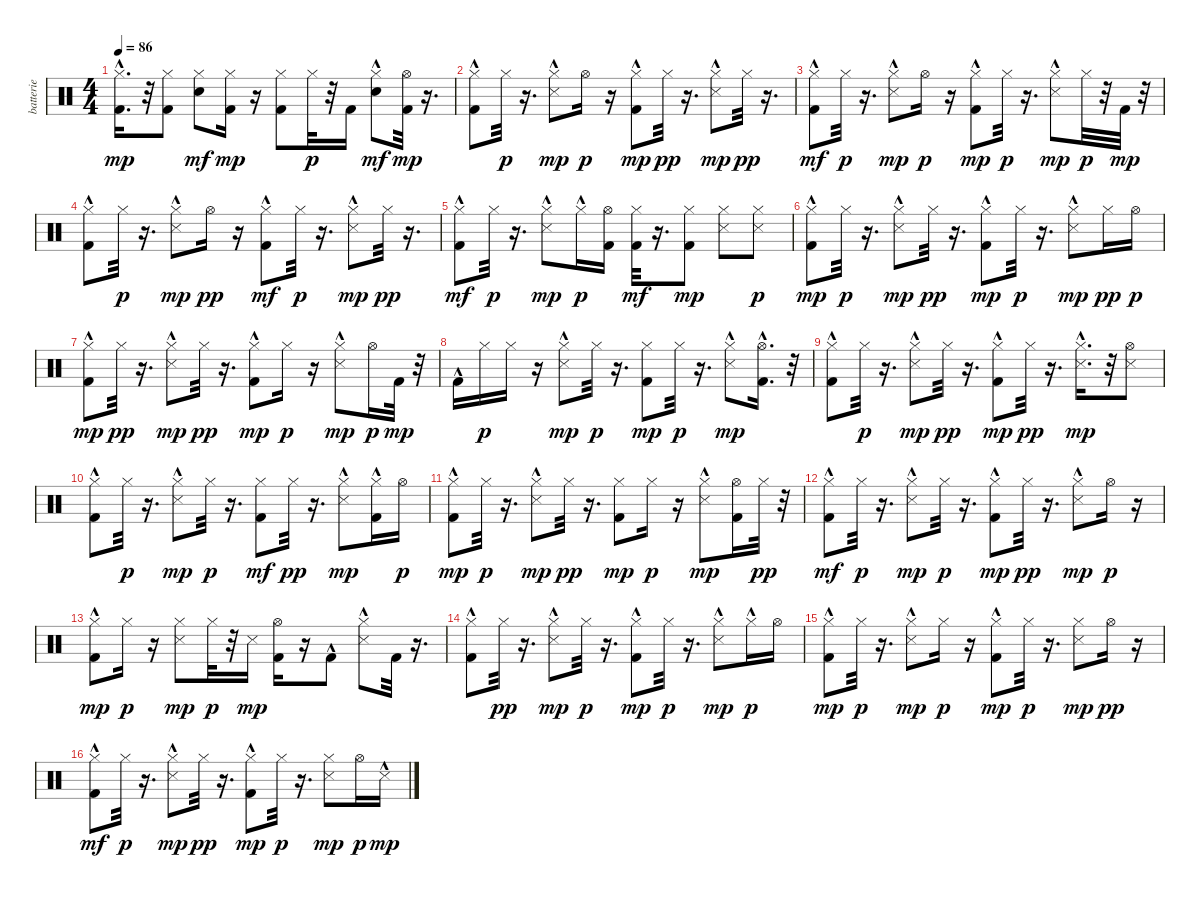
\track ("batterie" "batterie") {instrument percussion}
\staff {score}
\articulation defaults
\ts (4 4)
\tempo 86
\clef neutral
\ks c
("Hi-Hat (closed)" "Kick (hit) 2"{hac}).16{d dy mp} r.32 ("Hi-Hat (closed)" "Kick (hit) 2").8 ("Hi-Hat (closed)" "Snare (hit) 2").8{dy mf} ("Hi-Hat (closed)" "Kick (hit) 2").16{dy mp} r.16 ("Hi-Hat (closed)" "Kick (hit) 2").8 "Hi-Hat (closed)".32{dy p} r.32 "Kick (hit) 2".16 ("Hi-Hat (closed)" "Snare (hit) 2"{hac}).8{dy mf} ("Hi-Hat (open)" "Kick (hit) 2").32{dy mp} r.16{d} |
("Hi-Hat (closed)" "Kick (hit) 2"{hac}).8 "Hi-Hat (closed)".32{dy p} r.16{d} ("Hi-Hat (closed)" "Snare (side stick) 3"{hac}).8{dy mp} "Hi-Hat (open)".16{dy p} r.16 ("Hi-Hat (closed)" "Kick (hit) 2"{hac}).8{dy mp} "Hi-Hat (closed)".32{dy pp} r.16{d} ("Hi-Hat (closed)" "Snare (side stick) 3"{hac}).8{dy mp} "Hi-Hat (closed)".32{dy pp} r.16{d} |
("Hi-Hat (closed)" "Kick (hit) 2"{hac}).8{dy mf} "Hi-Hat (closed)".32{dy p} r.16{d} ("Hi-Hat (closed)" "Snare (side stick) 3"{hac}).8{dy mp} "Hi-Hat (open)".16{dy p} r.16 ("Hi-Hat (closed)" "Kick (hit) 2"{hac}).8{dy mp} "Hi-Hat (closed)".32{dy p} r.16{d} ("Hi-Hat (closed)" "Snare (side stick) 3"{hac}).8{dy mp} "Hi-Hat (closed)".32{dy p} r.32 "Kick (hit) 2".32{dy mp} r.32 |
("Hi-Hat (closed)" "Kick (hit) 2"{hac}).8 "Hi-Hat (closed)".32{dy p} r.16{d} ("Hi-Hat (closed)" "Snare (side stick) 3"{hac}).8{dy mp} "Hi-Hat (open)".16{dy pp} r.16 ("Hi-Hat (closed)" "Kick (hit) 2"{hac}).8{dy mf} "Hi-Hat (closed)".32{dy p} r.16{d} ("Hi-Hat (closed)" "Snare (side stick) 3"{hac}).8{dy mp} "Hi-Hat (closed)".32{dy pp} r.16{d} |
("Hi-Hat (closed)" "Kick (hit) 2"{hac}).8{dy mf} "Hi-Hat (closed)".32{dy p} r.16{d} ("Hi-Hat (closed)" "Snare (side stick) 3"{hac}).8{dy mp} "Hi-Hat (closed)"{hac}.16{dy p} ("Hi-Hat (open)" "Kick (hit) 2").16 ("Hi-Hat (closed)" "Kick (hit) 2").32{dy mf} r.16{d} ("Hi-Hat (closed)" "Kick (hit) 2").8{dy mp} ("Hi-Hat (closed)" "Snare (side stick) 3").8 ("Hi-Hat (closed)" "Snare (side stick) 3").8{dy p} |
("Hi-Hat (closed)" "Kick (hit) 2"{hac}).8{dy mp} "Hi-Hat (closed)".32{dy p} r.16{d} ("Hi-Hat (closed)" "Snare (side stick) 3"{hac}).8{dy mp} "Hi-Hat (closed)".32{dy pp} r.16{d} ("Hi-Hat (closed)" "Kick (hit) 2"{hac}).8{dy mp} "Hi-Hat (closed)".32{dy p} r.16{d} ("Hi-Hat (closed)" "Snare (side stick) 3"{hac}).8{dy mp} "Hi-Hat (closed)".16{dy pp} "Hi-Hat (open)".16{dy p} |
("Hi-Hat (closed)" "Kick (hit) 2"{hac}).8{dy mp} "Hi-Hat (closed)".32{dy pp} r.16{d} ("Hi-Hat (closed)" "Snare (side stick) 3"{hac}).8{dy mp} "Hi-Hat (closed)".32{dy pp} r.16{d} ("Hi-Hat (closed)" "Kick (hit) 2"{hac}).8{dy mp} "Hi-Hat (closed)".16{dy p} r.16 ("Hi-Hat (closed)" "Snare (side stick) 3"{hac}).8{dy mp} "Hi-Hat (open)".16{dy p} "Kick (hit) 2".32{dy mp} r.32 |
"Kick (hit) 2"{hac}.16 "Hi-Hat (closed)".16{dy p} "Hi-Hat (closed)".16 r.16 ("Hi-Hat (closed)" "Snare (side stick) 3"{hac}).8{dy mp} "Hi-Hat (closed)".32{dy p} r.16{d} ("Hi-Hat (closed)" "Kick (hit) 2").8{dy mp} "Hi-Hat (closed)".32{dy p} r.16{d} ("Hi-Hat (closed)" "Snare (side stick) 3"{hac}).8{dy mp} ("Hi-Hat (open)" "Kick (hit) 2"{hac}).16{d} r.32 |
("Hi-Hat (closed)" "Kick (hit) 2"{hac}).8 "Hi-Hat (closed)".32{dy p} r.16{d} ("Hi-Hat (closed)" "Snare (side stick) 3"{hac}).8{dy mp} "Hi-Hat (closed)".32{dy pp} r.16{d} ("Hi-Hat (closed)" "Kick (hit) 2"{hac}).8{dy mp} "Hi-Hat (closed)".32{dy pp} r.16{d} ("Hi-Hat (closed)" "Snare (side stick) 3"{hac}).16{d dy mp} r.32 ("Hi-Hat (open)" "Snare (side stick) 3").8 |
("Hi-Hat (closed)" "Kick (hit) 2"{hac}).8 "Hi-Hat (closed)".32{dy p} r.16{d} ("Hi-Hat (closed)" "Snare (side stick) 3"{hac}).8{dy mp} "Hi-Hat (closed)".32{dy p} r.16{d} ("Hi-Hat (closed)" "Kick (hit) 2").8{dy mf} "Hi-Hat (closed)".32{dy pp} r.16{d} ("Hi-Hat (closed)" "Snare (side stick) 3"{hac}).8{dy mp} ("Hi-Hat (closed)"{hac} "Kick (hit) 2").16 "Hi-Hat (open)".16{dy p} |
("Hi-Hat (closed)" "Kick (hit) 2"{hac}).8{dy mp} "Hi-Hat (closed)".32{dy p} r.16{d} ("Hi-Hat (closed)" "Snare (side stick) 3"{hac}).8{dy mp} "Hi-Hat (closed)".32{dy pp} r.16{d} ("Hi-Hat (closed)" "Kick (hit) 2").8{dy mp} "Hi-Hat (closed)".16{dy p} r.16 ("Hi-Hat (closed)" "Snare (side stick) 3"{hac}).8{dy mp} ("Hi-Hat (open)" "Kick (hit) 2").16 "Hi-Hat (closed)".32{dy pp} r.32 |
("Hi-Hat (closed)" "Kick (hit) 2"{hac}).8{dy mf} "Hi-Hat (closed)".32{dy p} r.16{d} ("Hi-Hat (closed)" "Snare (side stick) 3"{hac}).8{dy mp} "Hi-Hat (closed)".32{dy p} r.16{d} ("Hi-Hat (closed)" "Kick (hit) 2"{hac}).8{dy mp} "Hi-Hat (closed)".32{dy pp} r.16{d} ("Hi-Hat (closed)" "Snare (side stick) 3"{hac}).8{dy mp} "Hi-Hat (open)".16{dy p} r.16 |
("Hi-Hat (closed)" "Kick (hit) 2"{hac}).8{dy mp} "Hi-Hat (closed)".16{dy p} r.16 ("Hi-Hat (closed)" "Snare (side stick) 3").8{dy mp} "Hi-Hat (closed)".32{dy p} r.32 "Snare (side stick) 3".16{dy mp} ("Hi-Hat (open)" "Kick (hit) 2").16 r.16 "Kick (hit) 2"{hac}.8 ("Hi-Hat (closed)" "Snare (side stick) 3"{hac}).8 "Kick (hit) 2".32 r.16{d} |
("Hi-Hat (closed)" "Kick (hit) 2"{hac}).8 "Hi-Hat (closed)".32{dy pp} r.16{d} ("Hi-Hat (closed)" "Snare (side stick) 3"{hac}).8{dy mp} "Hi-Hat (closed)".32{dy p} r.16{d} ("Hi-Hat (closed)" "Kick (hit) 2"{hac}).8{dy mp} "Hi-Hat (closed)".32{dy p} r.16{d} ("Hi-Hat (closed)" "Snare (side stick) 3"{hac}).8{dy mp} "Hi-Hat (closed)"{hac}.16{dy p} "Hi-Hat (open)".16 |
("Hi-Hat (closed)"{hac} "Kick (hit) 2"{hac}).8{dy mp} "Hi-Hat (closed)".32{dy p} r.16{d} ("Hi-Hat (closed)" "Snare (side stick) 3"{hac}).8{dy mp} "Hi-Hat (closed)".16{dy p} r.16 ("Hi-Hat (closed)" "Kick (hit) 2"{hac}).8{dy mp} "Hi-Hat (closed)".32{dy p} r.16{d} ("Hi-Hat (closed)" "Snare (side stick) 3").8{dy mp} "Hi-Hat (open)".16{dy pp} r.16 |
("Hi-Hat (closed)" "Kick (hit) 2"{hac}).8{dy mf} "Hi-Hat (closed)".32{dy p} r.16{d} ("Hi-Hat (closed)" "Snare (side stick) 3"{hac}).8{dy mp} "Hi-Hat (closed)".32{dy pp} r.16{d} ("Hi-Hat (closed)" "Kick (hit) 2"{hac}).8{dy mp} "Hi-Hat (closed)".32{dy p} r.16{d} ("Hi-Hat (closed)" "Snare (side stick) 3").8{dy mp} "Hi-Hat (open)".16{dy p} "Snare (side stick) 3"{hac}.16{dy mp}
